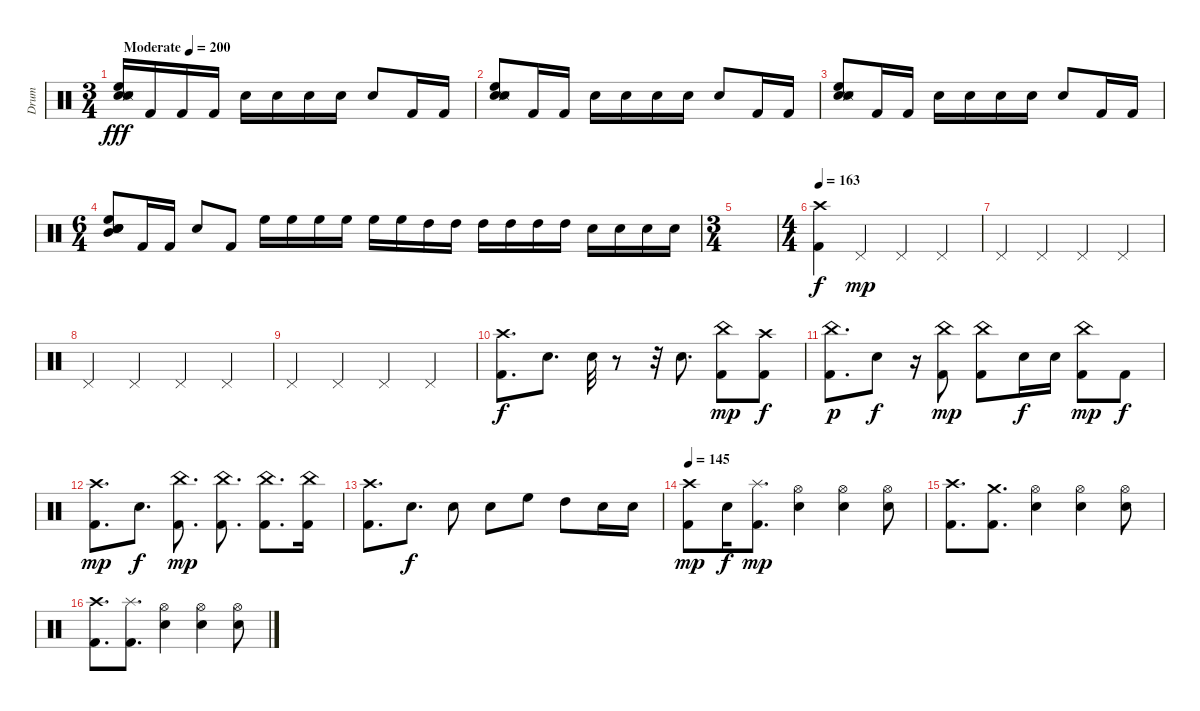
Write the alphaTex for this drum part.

\track ("Drum" "Drum") {instrument percussion}
\staff {score}
\articulation defaults
\ts (3 4)
\tempo (200 "Moderate")
\clef neutral
\ks c
("Electric Snare (hit)" "High Floor Tom (hit)" "Snare (side stick) 3" "Metronome (hit)" "Snare (hit)").16{dy fff} "Kick (hit) 2".16 "Kick (hit) 2".16 "Kick (hit) 2".16 "Electric Snare (hit)".16 "Electric Snare (hit)".16 "Electric Snare (hit)".16 "Electric Snare (hit)".16 "Electric Snare (hit)".8 "Kick (hit) 2".16 "Kick (hit) 2".16 |
("Electric Snare (hit)" "High Floor Tom (hit)" "Snare (side stick) 3" "Metronome (hit)" "Snare (hit)").8 "Kick (hit) 2".16 "Kick (hit) 2".16 "Electric Snare (hit)".16 "Electric Snare (hit)".16 "Electric Snare (hit)".16 "Electric Snare (hit)".16 "Electric Snare (hit)".8 "Kick (hit) 2".16 "Kick (hit) 2".16 |
("Electric Snare (hit)" "High Floor Tom (hit)" "Snare (side stick) 3" "Metronome (hit)" "Snare (hit)").8 "Kick (hit) 2".16 "Kick (hit) 2".16 "Electric Snare (hit)".16 "Electric Snare (hit)".16 "Electric Snare (hit)".16 "Electric Snare (hit)".16 "Electric Snare (hit)".8 "Kick (hit) 2".16 "Kick (hit) 2".16 |
\ts (6 4)
("Electric Snare (hit)" "High Floor Tom (hit)" "Mid Tom (hit)" "Snare (hit)" "Snare (hit)").8 "Kick (hit) 2".16 "Kick (hit) 2".16 "Electric Snare (hit)".8 "Kick (hit) 2".8 "High Floor Tom (hit)".16{balance 16} "High Floor Tom (hit)".16 "High Floor Tom (hit)".16 "High Floor Tom (hit)".16 "High Floor Tom (hit)".16 "High Floor Tom (hit)".16 "High Tom (hit)".16{balance 0} "High Tom (hit)".16 "High Tom (hit)".16 "High Tom (hit)".16 "High Tom (hit)".16 "High Tom (hit)".16 "Electric Snare (hit)".16{balance 8} "Electric Snare (hit)".16 "Electric Snare (hit)".16 "Electric Snare (hit)".16 |
\ts (3 4)
|
\ts (4 4)
\tempo 163
("Crash high (hit)" "Kick (hit) 2").4{dy f} "Pedal Hi-Hat (hit)".4{dy mp} "Pedal Hi-Hat (hit)".4 "Pedal Hi-Hat (hit)".4 |
"Pedal Hi-Hat (hit)".4 "Pedal Hi-Hat (hit)".4 "Pedal Hi-Hat (hit)".4 "Pedal Hi-Hat (hit)".4 |
"Pedal Hi-Hat (hit)".4 "Pedal Hi-Hat (hit)".4 "Pedal Hi-Hat (hit)".4 "Pedal Hi-Hat (hit)".4 |
"Pedal Hi-Hat (hit)".4 "Pedal Hi-Hat (hit)".4 "Pedal Hi-Hat (hit)".4 "Pedal Hi-Hat (hit)".4 |
("Kick (hit) 2" "Crash high (hit)").8{d dy f} "Electric Snare (hit)".8{d} "Electric Snare (hit)".32 r.8 r.32 "Electric Snare (hit)".8{d} ("Kick (hit) 2" "China (hit)").8{dy mp} ("Kick (hit) 2" "Crash high (hit)").8{dy f} |
("China (hit)" "Kick (hit) 2").8{d dy p} "Electric Snare (hit)".8{dy f} r.16 ("Kick (hit) 2" "China (hit)").8{dy mp} ("Kick (hit) 2" "China (hit)").8 "Electric Snare (hit)".16{dy f} "Electric Snare (hit)".16 ("Kick (hit) 2" "China (hit)").8{dy mp} "Kick (hit) 2".8{dy f} |
("Crash high (hit)" "Kick (hit) 2").8{d dy mp} "Electric Snare (hit)".8{d dy f} ("Kick (hit) 2" "China (hit)").8{d dy mp} ("Kick (hit) 2" "China (hit)").8{d} ("China (hit)" "Kick (hit) 2").8{d} ("Kick (hit) 2" "China (hit)").16 |
("Kick (hit) 2" "Crash high (hit)").8{d} "Electric Snare (hit)".8{d dy f} "Electric Snare (hit)".8 "Electric Snare (hit)".8 "High Floor Tom (hit)".8 "High Tom (hit)".8 "Electric Snare (hit)".16 "Electric Snare (hit)".16 |
\tempo 145
("Crash high (hit)" "Kick (hit) 2").8{dy mp} "Electric Snare (hit)".16{dy f} ("Splash (hit)" "Kick (hit) 2").8{d dy mp} ("Hi-Hat (open)" "Electric Snare (hit)").4 ("Hi-Hat (open)" "Electric Snare (hit)").4 ("Hi-Hat (open)" "Electric Snare (hit)").8 |
("Kick (hit) 2" "Crash high (hit)").8{d} ("Kick (hit) 2" "Crash medium (hit)").8{d} ("Hi-Hat (open)" "Electric Snare (hit)").4 ("Hi-Hat (open)" "Electric Snare (hit)").4 ("Hi-Hat (open)" "Electric Snare (hit)").8 |
("Crash high (hit)" "Kick (hit) 2").8{d} ("Splash (hit)" "Kick (hit) 2").8{d} ("Hi-Hat (open)" "Electric Snare (hit)").4 ("Hi-Hat (open)" "Electric Snare (hit)").4 ("Hi-Hat (open)" "Electric Snare (hit)").8
